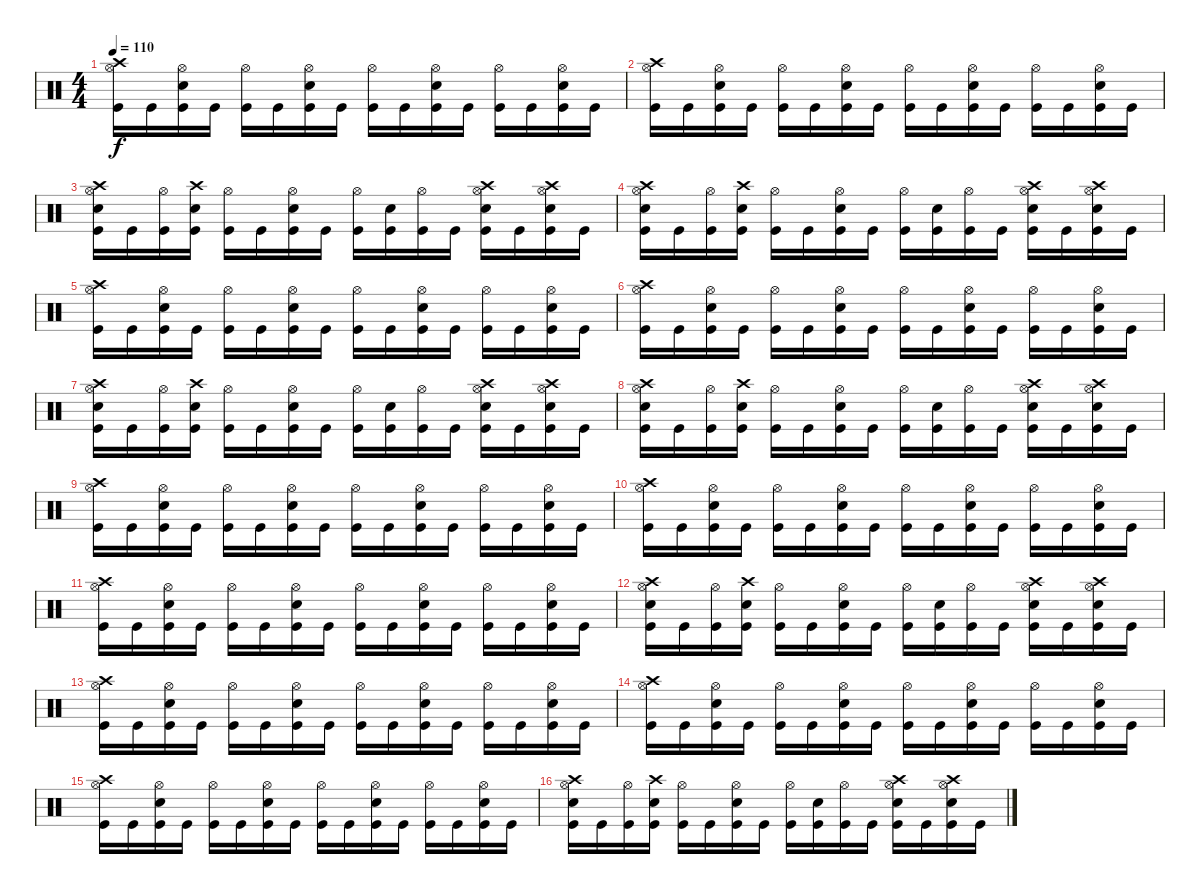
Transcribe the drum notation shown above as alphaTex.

\track "" {instrument percussion}
\staff {score}
\articulation defaults
\ts (4 4)
\tempo 110
\clef neutral
\ks c
("Crash high (hit)" "Kick (hit)" "Hi-Hat (open)").16{dy f} "Kick (hit)".16 ("Kick (hit)" "Electric Snare (hit)" "Hi-Hat (open)").16 "Kick (hit)".16 ("Kick (hit)" "Hi-Hat (open)").16 "Kick (hit)".16 ("Kick (hit)" "Electric Snare (hit)" "Hi-Hat (open)").16 "Kick (hit)".16 ("Hi-Hat (open)" "Kick (hit)").16 "Kick (hit)".16 ("Kick (hit)" "Hi-Hat (open)" "Electric Snare (hit)").16 "Kick (hit)".16 ("Hi-Hat (open)" "Kick (hit)").16 "Kick (hit)".16 ("Kick (hit)" "Hi-Hat (open)" "Electric Snare (hit)").16 "Kick (hit)".16 |
("Crash high (hit)" "Kick (hit)" "Hi-Hat (open)").16 "Kick (hit)".16 ("Kick (hit)" "Electric Snare (hit)" "Hi-Hat (open)").16 "Kick (hit)".16 ("Kick (hit)" "Hi-Hat (open)").16 "Kick (hit)".16 ("Kick (hit)" "Electric Snare (hit)" "Hi-Hat (open)").16 "Kick (hit)".16 ("Hi-Hat (open)" "Kick (hit)").16 "Kick (hit)".16 ("Kick (hit)" "Hi-Hat (open)" "Electric Snare (hit)").16 "Kick (hit)".16 ("Hi-Hat (open)" "Kick (hit)").16 "Kick (hit)".16 ("Kick (hit)" "Hi-Hat (open)" "Electric Snare (hit)").16 "Kick (hit)".16 |
("Crash high (hit)" "Electric Snare (hit)" "Kick (hit)" "Hi-Hat (open)").16 "Kick (hit)".16 ("Kick (hit)" "Hi-Hat (open)").16 ("Crash high (hit)" "Electric Snare (hit)" "Kick (hit)").16 ("Kick (hit)" "Hi-Hat (open)").16 "Kick (hit)".16 ("Electric Snare (hit)" "Kick (hit)" "Hi-Hat (open)").16 "Kick (hit)".16 ("Hi-Hat (open)" "Kick (hit)").16 ("Electric Snare (hit)" "Kick (hit)").16 ("Kick (hit)" "Hi-Hat (open)").16 "Kick (hit)".16 ("Crash high (hit)" "Electric Snare (hit)" "Hi-Hat (open)" "Kick (hit)").16 "Kick (hit)".16 ("Crash high (hit)" "Electric Snare (hit)" "Kick (hit)" "Hi-Hat (open)").16 "Kick (hit)".16 |
("Crash high (hit)" "Electric Snare (hit)" "Kick (hit)" "Hi-Hat (open)").16 "Kick (hit)".16 ("Kick (hit)" "Hi-Hat (open)").16 ("Crash high (hit)" "Electric Snare (hit)" "Kick (hit)").16 ("Kick (hit)" "Hi-Hat (open)").16 "Kick (hit)".16 ("Electric Snare (hit)" "Kick (hit)" "Hi-Hat (open)").16 "Kick (hit)".16 ("Hi-Hat (open)" "Kick (hit)").16 ("Electric Snare (hit)" "Kick (hit)").16 ("Kick (hit)" "Hi-Hat (open)").16 "Kick (hit)".16 ("Crash high (hit)" "Electric Snare (hit)" "Hi-Hat (open)" "Kick (hit)").16 "Kick (hit)".16 ("Crash high (hit)" "Electric Snare (hit)" "Kick (hit)" "Hi-Hat (open)").16 "Kick (hit)".16 |
("Crash high (hit)" "Kick (hit)" "Hi-Hat (open)").16 "Kick (hit)".16 ("Kick (hit)" "Electric Snare (hit)" "Hi-Hat (open)").16 "Kick (hit)".16 ("Kick (hit)" "Hi-Hat (open)").16 "Kick (hit)".16 ("Kick (hit)" "Electric Snare (hit)" "Hi-Hat (open)").16 "Kick (hit)".16 ("Hi-Hat (open)" "Kick (hit)").16 "Kick (hit)".16 ("Kick (hit)" "Hi-Hat (open)" "Electric Snare (hit)").16 "Kick (hit)".16 ("Hi-Hat (open)" "Kick (hit)").16 "Kick (hit)".16 ("Kick (hit)" "Hi-Hat (open)" "Electric Snare (hit)").16 "Kick (hit)".16 |
("Crash high (hit)" "Kick (hit)" "Hi-Hat (open)").16 "Kick (hit)".16 ("Kick (hit)" "Electric Snare (hit)" "Hi-Hat (open)").16 "Kick (hit)".16 ("Kick (hit)" "Hi-Hat (open)").16 "Kick (hit)".16 ("Kick (hit)" "Electric Snare (hit)" "Hi-Hat (open)").16 "Kick (hit)".16 ("Hi-Hat (open)" "Kick (hit)").16 "Kick (hit)".16 ("Kick (hit)" "Hi-Hat (open)" "Electric Snare (hit)").16 "Kick (hit)".16 ("Hi-Hat (open)" "Kick (hit)").16 "Kick (hit)".16 ("Kick (hit)" "Hi-Hat (open)" "Electric Snare (hit)").16 "Kick (hit)".16 |
("Crash high (hit)" "Electric Snare (hit)" "Kick (hit)" "Hi-Hat (open)").16 "Kick (hit)".16 ("Kick (hit)" "Hi-Hat (open)").16 ("Crash high (hit)" "Electric Snare (hit)" "Kick (hit)").16 ("Kick (hit)" "Hi-Hat (open)").16 "Kick (hit)".16 ("Electric Snare (hit)" "Kick (hit)" "Hi-Hat (open)").16 "Kick (hit)".16 ("Hi-Hat (open)" "Kick (hit)").16 ("Electric Snare (hit)" "Kick (hit)").16 ("Kick (hit)" "Hi-Hat (open)").16 "Kick (hit)".16 ("Crash high (hit)" "Electric Snare (hit)" "Hi-Hat (open)" "Kick (hit)").16 "Kick (hit)".16 ("Crash high (hit)" "Electric Snare (hit)" "Kick (hit)" "Hi-Hat (open)").16 "Kick (hit)".16 |
("Crash high (hit)" "Electric Snare (hit)" "Kick (hit)" "Hi-Hat (open)").16 "Kick (hit)".16 ("Kick (hit)" "Hi-Hat (open)").16 ("Crash high (hit)" "Electric Snare (hit)" "Kick (hit)").16 ("Kick (hit)" "Hi-Hat (open)").16 "Kick (hit)".16 ("Electric Snare (hit)" "Kick (hit)" "Hi-Hat (open)").16 "Kick (hit)".16 ("Hi-Hat (open)" "Kick (hit)").16 ("Electric Snare (hit)" "Kick (hit)").16 ("Kick (hit)" "Hi-Hat (open)").16 "Kick (hit)".16 ("Crash high (hit)" "Electric Snare (hit)" "Hi-Hat (open)" "Kick (hit)").16 "Kick (hit)".16 ("Crash high (hit)" "Electric Snare (hit)" "Kick (hit)" "Hi-Hat (open)").16 "Kick (hit)".16 |
("Crash high (hit)" "Kick (hit)" "Hi-Hat (open)").16 "Kick (hit)".16 ("Kick (hit)" "Electric Snare (hit)" "Hi-Hat (open)").16 "Kick (hit)".16 ("Kick (hit)" "Hi-Hat (open)").16 "Kick (hit)".16 ("Kick (hit)" "Electric Snare (hit)" "Hi-Hat (open)").16 "Kick (hit)".16 ("Hi-Hat (open)" "Kick (hit)").16 "Kick (hit)".16 ("Kick (hit)" "Hi-Hat (open)" "Electric Snare (hit)").16 "Kick (hit)".16 ("Hi-Hat (open)" "Kick (hit)").16 "Kick (hit)".16 ("Kick (hit)" "Hi-Hat (open)" "Electric Snare (hit)").16 "Kick (hit)".16 |
("Crash high (hit)" "Kick (hit)" "Hi-Hat (open)").16 "Kick (hit)".16 ("Kick (hit)" "Electric Snare (hit)" "Hi-Hat (open)").16 "Kick (hit)".16 ("Kick (hit)" "Hi-Hat (open)").16 "Kick (hit)".16 ("Kick (hit)" "Electric Snare (hit)" "Hi-Hat (open)").16 "Kick (hit)".16 ("Hi-Hat (open)" "Kick (hit)").16 "Kick (hit)".16 ("Kick (hit)" "Hi-Hat (open)" "Electric Snare (hit)").16 "Kick (hit)".16 ("Hi-Hat (open)" "Kick (hit)").16 "Kick (hit)".16 ("Kick (hit)" "Hi-Hat (open)" "Electric Snare (hit)").16 "Kick (hit)".16 |
("Crash high (hit)" "Kick (hit)" "Hi-Hat (open)").16 "Kick (hit)".16 ("Kick (hit)" "Electric Snare (hit)" "Hi-Hat (open)").16 "Kick (hit)".16 ("Kick (hit)" "Hi-Hat (open)").16 "Kick (hit)".16 ("Kick (hit)" "Electric Snare (hit)" "Hi-Hat (open)").16 "Kick (hit)".16 ("Hi-Hat (open)" "Kick (hit)").16 "Kick (hit)".16 ("Kick (hit)" "Hi-Hat (open)" "Electric Snare (hit)").16 "Kick (hit)".16 ("Hi-Hat (open)" "Kick (hit)").16 "Kick (hit)".16 ("Kick (hit)" "Hi-Hat (open)" "Electric Snare (hit)").16 "Kick (hit)".16 |
("Crash high (hit)" "Electric Snare (hit)" "Kick (hit)" "Hi-Hat (open)").16 "Kick (hit)".16 ("Kick (hit)" "Hi-Hat (open)").16 ("Crash high (hit)" "Electric Snare (hit)" "Kick (hit)").16 ("Kick (hit)" "Hi-Hat (open)").16 "Kick (hit)".16 ("Electric Snare (hit)" "Kick (hit)" "Hi-Hat (open)").16 "Kick (hit)".16 ("Hi-Hat (open)" "Kick (hit)").16 ("Electric Snare (hit)" "Kick (hit)").16 ("Kick (hit)" "Hi-Hat (open)").16 "Kick (hit)".16 ("Crash high (hit)" "Electric Snare (hit)" "Hi-Hat (open)" "Kick (hit)").16 "Kick (hit)".16 ("Crash high (hit)" "Electric Snare (hit)" "Kick (hit)" "Hi-Hat (open)").16 "Kick (hit)".16 |
("Crash high (hit)" "Kick (hit)" "Hi-Hat (open)").16 "Kick (hit)".16 ("Kick (hit)" "Electric Snare (hit)" "Hi-Hat (open)").16 "Kick (hit)".16 ("Kick (hit)" "Hi-Hat (open)").16 "Kick (hit)".16 ("Kick (hit)" "Electric Snare (hit)" "Hi-Hat (open)").16 "Kick (hit)".16 ("Hi-Hat (open)" "Kick (hit)").16 "Kick (hit)".16 ("Kick (hit)" "Hi-Hat (open)" "Electric Snare (hit)").16 "Kick (hit)".16 ("Hi-Hat (open)" "Kick (hit)").16 "Kick (hit)".16 ("Kick (hit)" "Hi-Hat (open)" "Electric Snare (hit)").16 "Kick (hit)".16 |
("Crash high (hit)" "Kick (hit)" "Hi-Hat (open)").16 "Kick (hit)".16 ("Kick (hit)" "Electric Snare (hit)" "Hi-Hat (open)").16 "Kick (hit)".16 ("Kick (hit)" "Hi-Hat (open)").16 "Kick (hit)".16 ("Kick (hit)" "Electric Snare (hit)" "Hi-Hat (open)").16 "Kick (hit)".16 ("Hi-Hat (open)" "Kick (hit)").16 "Kick (hit)".16 ("Kick (hit)" "Hi-Hat (open)" "Electric Snare (hit)").16 "Kick (hit)".16 ("Hi-Hat (open)" "Kick (hit)").16 "Kick (hit)".16 ("Kick (hit)" "Hi-Hat (open)" "Electric Snare (hit)").16 "Kick (hit)".16 |
("Crash high (hit)" "Kick (hit)" "Hi-Hat (open)").16 "Kick (hit)".16 ("Kick (hit)" "Electric Snare (hit)" "Hi-Hat (open)").16 "Kick (hit)".16 ("Kick (hit)" "Hi-Hat (open)").16 "Kick (hit)".16 ("Kick (hit)" "Electric Snare (hit)" "Hi-Hat (open)").16 "Kick (hit)".16 ("Hi-Hat (open)" "Kick (hit)").16 "Kick (hit)".16 ("Kick (hit)" "Hi-Hat (open)" "Electric Snare (hit)").16 "Kick (hit)".16 ("Hi-Hat (open)" "Kick (hit)").16 "Kick (hit)".16 ("Kick (hit)" "Hi-Hat (open)" "Electric Snare (hit)").16 "Kick (hit)".16 |
("Crash high (hit)" "Electric Snare (hit)" "Kick (hit)" "Hi-Hat (open)").16 "Kick (hit)".16 ("Kick (hit)" "Hi-Hat (open)").16 ("Crash high (hit)" "Electric Snare (hit)" "Kick (hit)").16 ("Kick (hit)" "Hi-Hat (open)").16 "Kick (hit)".16 ("Electric Snare (hit)" "Kick (hit)" "Hi-Hat (open)").16 "Kick (hit)".16 ("Hi-Hat (open)" "Kick (hit)").16 ("Electric Snare (hit)" "Kick (hit)").16 ("Kick (hit)" "Hi-Hat (open)").16 "Kick (hit)".16 ("Crash high (hit)" "Electric Snare (hit)" "Hi-Hat (open)" "Kick (hit)").16 "Kick (hit)".16 ("Crash high (hit)" "Electric Snare (hit)" "Kick (hit)" "Hi-Hat (open)").16 "Kick (hit)".16
